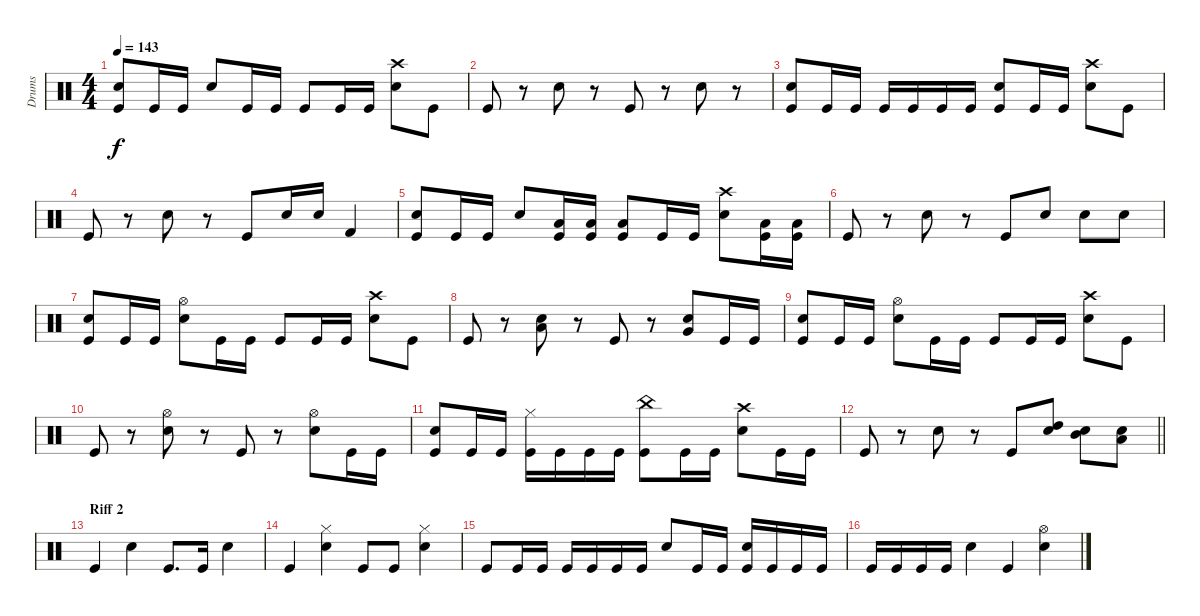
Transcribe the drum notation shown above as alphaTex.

\track ("Drums" "Drums") {instrument percussion}
\staff {score}
\articulation defaults
\ts (4 4)
\tempo 143
\clef neutral
\ks c
("Snare (hit) 2" "Kick (hit)").8{dy f} "Kick (hit)".16 "Kick (hit)".16 "Snare (hit) 2".8 "Kick (hit)".16 "Kick (hit)".16 "Kick (hit)".8 "Kick (hit)".16 "Kick (hit)".16 ("Crash high (hit)" "Snare (hit) 2").8 "Kick (hit)".8 |
"Kick (hit)".8 r.8 "Snare (hit) 2".8 r.8 "Kick (hit)".8 r.8 "Snare (hit) 2".8 r.8 |
("Snare (hit) 2" "Kick (hit)").8 "Kick (hit)".16 "Kick (hit)".16 "Kick (hit)".16 "Kick (hit)".16 "Kick (hit)".16 "Kick (hit)".16 ("Electric Snare (hit)" "Kick (hit)").8 "Kick (hit)".16 "Kick (hit)".16 ("Crash high (hit)" "Snare (hit) 2").8 "Kick (hit)".8 |
"Kick (hit)".8 r.8 "Snare (hit) 2".8 r.8 "Kick (hit)".8 "Snare (hit) 2".16 "Snare (hit) 2".16 "Kick (hit) 2".4 |
("Snare (hit) 2" "Kick (hit)").8 "Kick (hit)".16 "Kick (hit)".16 "Snare (hit) 2".8 ("Low Floor Tom (hit)" "Kick (hit)").16 ("Low Floor Tom (hit)" "Kick (hit)").16 ("Low Floor Tom (hit)" "Kick (hit)").8 "Kick (hit)".16 "Kick (hit)".16 ("Crash high (hit)" "Snare (hit) 2").8 ("Kick (hit)" "Low Floor Tom (hit)").16 ("Kick (hit)" "Low Floor Tom (hit)").16 |
"Kick (hit)".8 r.8 "Snare (hit) 2".8 r.8 "Kick (hit)".8 "Snare (hit) 2".8 "Snare (hit) 2".8 "Snare (hit) 2".8 |
("Snare (hit) 2" "Kick (hit)").8 "Kick (hit)".16 "Kick (hit)".16 ("Hi-Hat (open)" "Snare (hit) 2").8 "Kick (hit)".16 "Kick (hit)".16 "Kick (hit)".8 "Kick (hit)".16 "Kick (hit)".16 ("Crash high (hit)" "Snare (hit) 2").8 "Kick (hit)".8 |
"Kick (hit)".8 r.8 ("Snare (hit) 2" "Low Floor Tom (hit)").8 r.8 "Kick (hit)".8 r.8 ("Snare (hit) 2" "Very Low Tom (hit)").8 "Kick (hit)".16 "Kick (hit)".16 |
("Snare (hit) 2" "Kick (hit)").8 "Kick (hit)".16 "Kick (hit)".16 ("Hi-Hat (open)" "Snare (hit) 2").8 "Kick (hit)".16 "Kick (hit)".16 "Kick (hit)".8 "Kick (hit)".16 "Kick (hit)".16 ("Crash high (hit)" "Snare (hit) 2").8 "Kick (hit)".8 |
"Kick (hit)".8 r.8 ("Hi-Hat (open)" "Snare (hit) 2").8 r.8 "Kick (hit)".8 r.8 ("Hi-Hat (open)" "Snare (hit) 2").8 "Kick (hit)".16 "Kick (hit)".16 |
("Snare (hit) 2" "Kick (hit)").8 "Kick (hit)".16 "Kick (hit)".16 ("Hi-Hat (closed)" "Kick (hit)").16 "Kick (hit)".16 "Kick (hit)".16 "Kick (hit)".16 ("China (hit)" "Kick (hit)").8 "Kick (hit)".16 "Kick (hit)".16 ("Crash high (hit)" "Snare (hit) 2").8 "Kick (hit)".16 "Kick (hit)".16 |
\barLineRight lightlight "Kick (hit)".8
r.8 "Snare (hit) 2".8 r.8 "Kick (hit)".8 ("High Tom (hit)" "Snare (hit) 2").8 ("Mid Tom (hit)" "Snare (hit) 2").8 ("Low Tom (hit)" "Snare (hit) 2").8 |
\section ("" "Riff 2")
"Kick (hit)".4 "Snare (hit) 2".4 "Kick (hit)".8{d} "Kick (hit)".16 "Snare (hit) 2".4 |
"Kick (hit)".4 ("Hi-Hat (closed)" "Snare (hit) 2").4 "Kick (hit)".8 "Kick (hit)".8 ("Hi-Hat (closed)" "Snare (hit) 2").4 |
"Kick (hit)".8 "Kick (hit)".16 "Kick (hit)".16 "Kick (hit)".16 "Kick (hit)".16 "Kick (hit)".16 "Kick (hit)".16 "Snare (hit) 2".8 "Kick (hit)".16 "Kick (hit)".16 ("Snare (hit) 2" "Kick (hit)").16 "Kick (hit)".16 "Kick (hit)".16 "Kick (hit)".16 |
"Kick (hit)".16 "Kick (hit)".16 "Kick (hit)".16 "Kick (hit)".16 "Snare (hit) 2".4 "Kick (hit)".4 ("Hi-Hat (open)" "Snare (hit) 2").4
